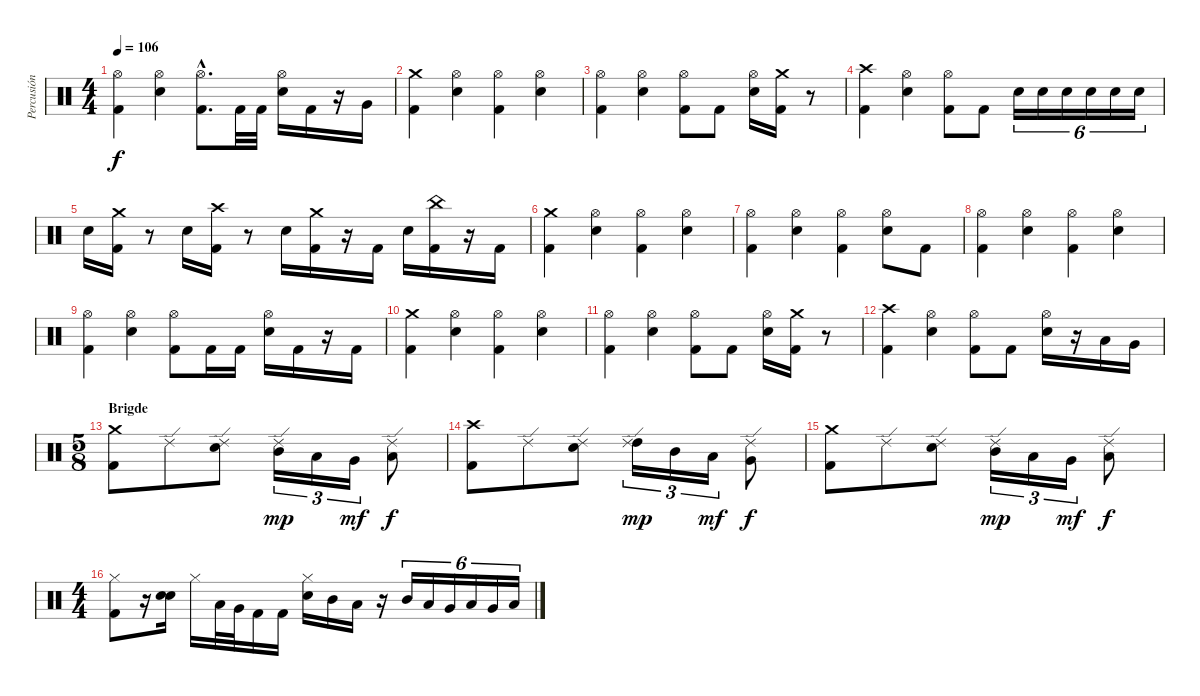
\track ("Percusión" "Percusión") {instrument percussion}
\staff {score}
\articulation defaults
\ts (4 4)
\tempo 106
\clef neutral
\ks c
("Hi-Hat (open)" "Kick (hit) 2").4{dy f} ("Hi-Hat (open)" "Electric Snare (hit)").4 ("Hi-Hat (open)" "Kick (hit) 2"{hac}).8{d} "Kick (hit) 2".32 "Kick (hit) 2".32 ("Hi-Hat (open)" "Electric Snare (hit)").16 "Kick (hit) 2".16 r.16 "Very Low Tom (hit)".16 |
("Crash medium (hit)" "Kick (hit) 2").4 ("Hi-Hat (open)" "Electric Snare (hit)").4 ("Hi-Hat (open)" "Kick (hit) 2").4 ("Hi-Hat (open)" "Electric Snare (hit)").4 |
("Hi-Hat (open)" "Kick (hit) 2").4 ("Hi-Hat (open)" "Electric Snare (hit)").4 ("Hi-Hat (open)" "Kick (hit) 2").8 "Kick (hit) 2".8 ("Hi-Hat (open)" "Electric Snare (hit)").16 ("Crash medium (hit)" "Kick (hit) 2").16 r.8 |
("Crash high (hit)" "Kick (hit) 2").4 ("Hi-Hat (open)" "Electric Snare (hit)").4 ("Hi-Hat (open)" "Kick (hit) 2").8 "Kick (hit) 2".8 "Electric Snare (hit)".16{tu (6 4)} "Electric Snare (hit)".16{tu (6 4)} "Electric Snare (hit)".16{tu (6 4)} "Electric Snare (hit)".16{tu (6 4)} "Electric Snare (hit)".16{tu (6 4)} "Electric Snare (hit)".16{tu (6 4)} |
"Electric Snare (hit)".16 ("Kick (hit) 2" "Crash medium (hit)").16 r.8 "Electric Snare (hit)".16 ("Crash high (hit)" "Kick (hit) 2").16 r.8 "Electric Snare (hit)".16 ("Crash medium (hit)" "Kick (hit) 2").16 r.16 "Kick (hit) 2".16 "Electric Snare (hit)".16 ("China (hit)" "Kick (hit) 2").16 r.16 "Kick (hit) 2".16 |
("Crash medium (hit)" "Kick (hit) 2").4 ("Hi-Hat (open)" "Electric Snare (hit)").4 ("Hi-Hat (open)" "Kick (hit) 2").4 ("Hi-Hat (open)" "Electric Snare (hit)").4 |
("Hi-Hat (open)" "Kick (hit) 2").4 ("Hi-Hat (open)" "Electric Snare (hit)").4 ("Hi-Hat (open)" "Kick (hit) 2").4 ("Hi-Hat (open)" "Electric Snare (hit)").8 "Kick (hit) 2".8 |
("Hi-Hat (open)" "Kick (hit) 2").4 ("Hi-Hat (open)" "Electric Snare (hit)").4 ("Hi-Hat (open)" "Kick (hit) 2").4 ("Hi-Hat (open)" "Electric Snare (hit)").4 |
("Hi-Hat (open)" "Kick (hit) 2").4 ("Hi-Hat (open)" "Electric Snare (hit)").4 ("Hi-Hat (open)" "Kick (hit) 2").8 "Kick (hit) 2".16 "Kick (hit) 2".16 ("Hi-Hat (open)" "Electric Snare (hit)").16 "Kick (hit) 2".16 r.16 "Kick (hit) 2".16 |
("Crash medium (hit)" "Kick (hit) 2").4 ("Hi-Hat (open)" "Electric Snare (hit)").4 ("Hi-Hat (open)" "Kick (hit) 2").4 ("Hi-Hat (open)" "Electric Snare (hit)").4 |
("Hi-Hat (open)" "Kick (hit) 2").4 ("Hi-Hat (open)" "Electric Snare (hit)").4 ("Hi-Hat (open)" "Kick (hit) 2").8 "Kick (hit) 2".8 ("Hi-Hat (open)" "Electric Snare (hit)").16 ("Crash medium (hit)" "Kick (hit) 2").16 r.8 |
("Crash high (hit)" "Kick (hit) 2").4 ("Hi-Hat (open)" "Electric Snare (hit)").4 ("Hi-Hat (open)" "Kick (hit) 2").8 "Kick (hit) 2".8 ("Hi-Hat (open)" "Electric Snare (hit)").16 r.16 "Low Tom (hit)".16 "Very Low Tom (hit)".16 |
\ts (5 8)
\section ("" "Brigde")
("Crash medium (hit)" "Kick (hit) 2").8 "Ride (edge) 2".8 ("Ride (edge) 2" "Electric Snare (hit)").8 ("Ride (edge) 2" "Mid Tom (hit)").16{tu (3 2) dy mp} "Low Tom (hit)".16{tu (3 2)} "Very Low Tom (hit)".16{tu (3 2) dy mf} ("Ride (edge) 2" "Low Floor Tom (hit)").8{dy f} |
("Crash high (hit)" "Kick (hit) 2").8 "Ride (edge) 2".8 ("Ride (edge) 2" "Electric Snare (hit)").8 ("High Tom (hit)" "Ride (edge) 2").16{tu (3 2) dy mp} "Mid Tom (hit)".16{tu (3 2)} "Low Tom (hit)".16{tu (3 2) dy mf} ("Very Low Tom (hit)" "Ride (edge) 2").8{dy f} |
("Crash medium (hit)" "Kick (hit) 2").8 "Ride (edge) 2".8 ("Ride (edge) 2" "Electric Snare (hit)").8 ("Ride (edge) 2" "Mid Tom (hit)").16{tu (3 2) dy mp} "Low Tom (hit)".16{tu (3 2)} "Very Low Tom (hit)".16{tu (3 2) dy mf} ("Ride (edge) 2" "Low Floor Tom (hit)").8{dy f} |
\ts (4 4)
("Hi-Hat (closed)" "Kick (hit) 2").8 r.16 ("Electric Snare (hit)" "Electric Snare (hit)").16 "Hi-Hat (closed)".16 "Low Tom (hit)".32 "Very Low Tom (hit)".32 "Kick (hit) 2".16 "Kick (hit) 2".16 ("Hi-Hat (closed)" "Electric Snare (hit)").16 "Mid Tom (hit)".16 "Low Tom (hit)".16 r.16 "Mid Tom (hit)".16{tu (6 4)} "Low Tom (hit)".16{tu (6 4)} "Very Low Tom (hit)".16{tu (6 4)} "Low Tom (hit)".16{tu (6 4)} "Very Low Tom (hit)".16{tu (6 4)} "Low Floor Tom (hit)".16{tu (6 4)}
